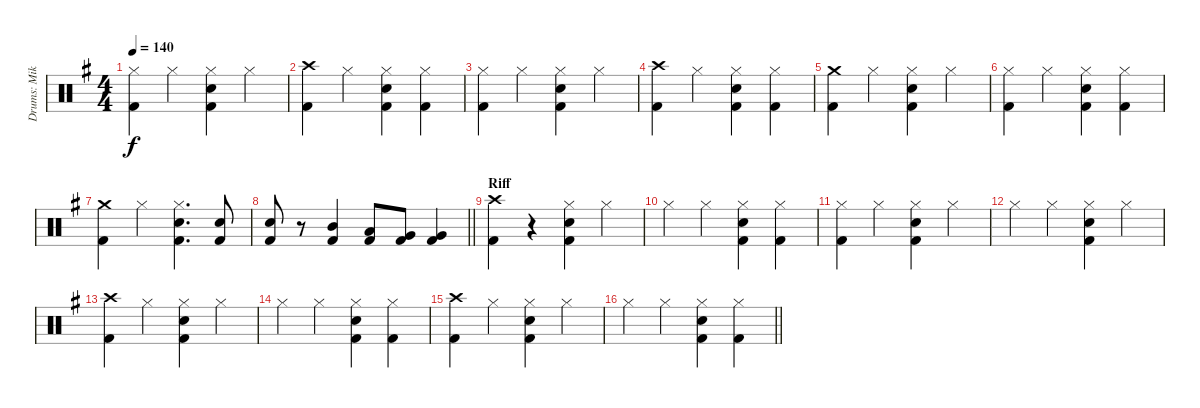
\track ("Drums: Mike Terrana" "Drums: Mik") {instrument percussion}
\staff {score}
\articulation defaults
\ts (4 4)
\tempo 140
\clef neutral
\ks eminor
("Hi-Hat (closed)" "Kick (hit) 2").4{dy f} "Hi-Hat (closed)".4 ("Hi-Hat (closed)" "Electric Snare (hit)" "Kick (hit) 2").4 "Hi-Hat (closed)".4 |
("Crash high (hit)" "Kick (hit) 2").4 "Hi-Hat (closed)".4 ("Hi-Hat (closed)" "Electric Snare (hit)" "Kick (hit) 2").4 ("Hi-Hat (closed)" "Kick (hit) 2").4 |
("Hi-Hat (closed)" "Kick (hit) 2").4 "Hi-Hat (closed)".4 ("Hi-Hat (closed)" "Electric Snare (hit)" "Kick (hit) 2").4 "Hi-Hat (closed)".4 |
("Crash high (hit)" "Kick (hit) 2").4 "Hi-Hat (closed)".4 ("Hi-Hat (closed)" "Electric Snare (hit)" "Kick (hit) 2").4 ("Hi-Hat (closed)" "Kick (hit) 2").4 |
("Crash medium (hit)" "Kick (hit) 2").4 "Hi-Hat (closed)".4 ("Hi-Hat (closed)" "Electric Snare (hit)" "Kick (hit) 2").4 "Hi-Hat (closed)".4 |
("Hi-Hat (closed)" "Kick (hit) 2").4 "Hi-Hat (closed)".4 ("Hi-Hat (closed)" "Electric Snare (hit)" "Kick (hit) 2").4 ("Hi-Hat (closed)" "Kick (hit) 2").4 |
("Crash medium (hit)" "Kick (hit) 2").4 "Hi-Hat (closed)".4 ("Hi-Hat (closed)" "Electric Snare (hit)" "Kick (hit) 2").4{d} ("Electric Snare (hit)" "Kick (hit) 2").8 |
\barLineRight lightlight
("Electric Snare (hit)" "Kick (hit) 2").8 r.8 ("Mid Tom (hit)" "Kick (hit) 2").4 ("Low Tom (hit)" "Kick (hit) 2").8 ("Very Low Tom (hit)" "Kick (hit) 2").8 ("Very Low Tom (hit)" "Kick (hit) 2").4 |
\section ("" "Riff")
("Crash high (hit)" "Kick (hit) 2").4 r.4 ("Hi-Hat (closed)" "Electric Snare (hit)" "Kick (hit) 2").4 "Hi-Hat (closed)".4 |
"Hi-Hat (closed)".4 "Hi-Hat (closed)".4 ("Hi-Hat (closed)" "Electric Snare (hit)" "Kick (hit) 2").4 ("Hi-Hat (closed)" "Kick (hit) 2").4 |
("Hi-Hat (closed)" "Kick (hit) 2").4 "Hi-Hat (closed)".4 ("Hi-Hat (closed)" "Electric Snare (hit)" "Kick (hit) 2").4 "Hi-Hat (closed)".4 |
"Hi-Hat (closed)".4 "Hi-Hat (closed)".4 ("Hi-Hat (closed)" "Electric Snare (hit)" "Kick (hit) 2").4 "Hi-Hat (closed)".4 |
("Crash high (hit)" "Kick (hit) 2").4 "Hi-Hat (closed)".4 ("Hi-Hat (closed)" "Electric Snare (hit)" "Kick (hit) 2").4 "Hi-Hat (closed)".4 |
"Hi-Hat (closed)".4 "Hi-Hat (closed)".4 ("Hi-Hat (closed)" "Electric Snare (hit)" "Kick (hit) 2").4 ("Hi-Hat (closed)" "Kick (hit) 2").4 |
("Crash high (hit)" "Kick (hit) 2").4 "Hi-Hat (closed)".4 ("Hi-Hat (closed)" "Electric Snare (hit)" "Kick (hit) 2").4 "Hi-Hat (closed)".4 |
\barLineRight lightlight "Hi-Hat (closed)".4 "Hi-Hat (closed)".4
("Hi-Hat (closed)" "Electric Snare (hit)" "Kick (hit) 2").4 ("Hi-Hat (closed)" "Kick (hit) 2").4
